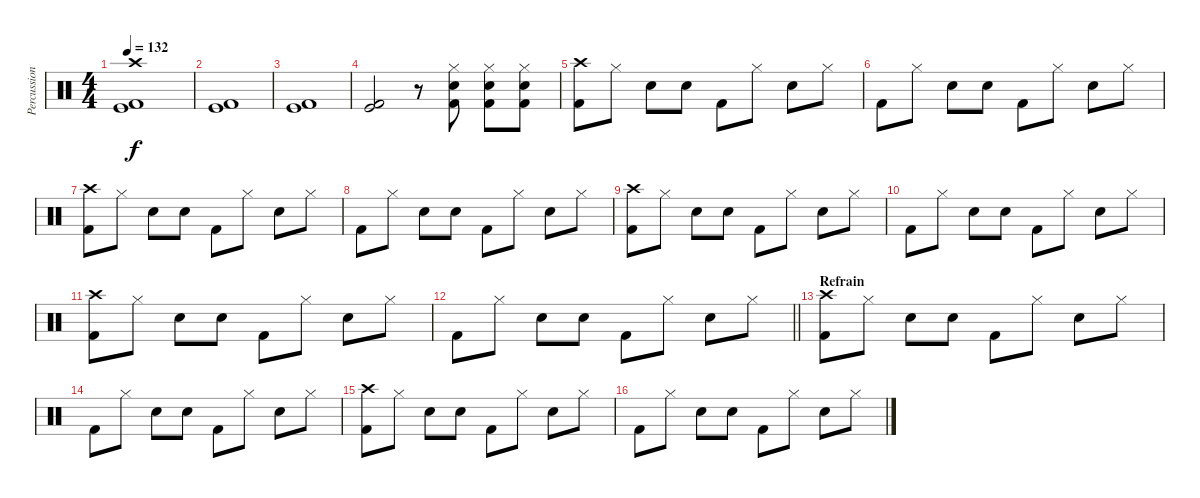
\track ("Percussions" "Percussion") {instrument percussion}
\staff {score}
\articulation defaults
\ts (4 4)
\tempo 132
\clef neutral
\ks c
("Kick (hit) 2" "Kick (hit)" "Crash high (hit)").1{dy f} |
("Kick (hit) 2" "Kick (hit)").1 |
("Kick (hit) 2" "Kick (hit)").1 |
("Kick (hit) 2" "Kick (hit)").2 r.8 ("Snare (hit) 2" "Kick (hit) 2" "Hi-Hat (closed)").8 ("Snare (hit) 2" "Kick (hit) 2" "Hi-Hat (closed)").8 ("Snare (hit) 2" "Kick (hit) 2" "Hi-Hat (closed)").8 |
("Kick (hit) 2" "Crash high (hit)").8 "Hi-Hat (closed)".8 "Snare (hit) 2".8 "Snare (hit) 2".8 "Kick (hit) 2".8 "Hi-Hat (closed)".8 "Snare (hit) 2".8 "Hi-Hat (closed)".8 |
"Kick (hit) 2".8 "Hi-Hat (closed)".8 "Snare (hit) 2".8 "Snare (hit) 2".8 "Kick (hit) 2".8 "Hi-Hat (closed)".8 "Snare (hit) 2".8 "Hi-Hat (closed)".8 |
("Kick (hit) 2" "Crash high (hit)").8 "Hi-Hat (closed)".8 "Snare (hit) 2".8 "Snare (hit) 2".8 "Kick (hit) 2".8 "Hi-Hat (closed)".8 "Snare (hit) 2".8 "Hi-Hat (closed)".8 |
"Kick (hit) 2".8 "Hi-Hat (closed)".8 "Snare (hit) 2".8 "Snare (hit) 2".8 "Kick (hit) 2".8 "Hi-Hat (closed)".8 "Snare (hit) 2".8 "Hi-Hat (closed)".8 |
("Kick (hit) 2" "Crash high (hit)").8 "Hi-Hat (closed)".8 "Snare (hit) 2".8 "Snare (hit) 2".8 "Kick (hit) 2".8 "Hi-Hat (closed)".8 "Snare (hit) 2".8 "Hi-Hat (closed)".8 |
"Kick (hit) 2".8 "Hi-Hat (closed)".8 "Snare (hit) 2".8 "Snare (hit) 2".8 "Kick (hit) 2".8 "Hi-Hat (closed)".8 "Snare (hit) 2".8 "Hi-Hat (closed)".8 |
("Kick (hit) 2" "Crash high (hit)").8 "Hi-Hat (closed)".8 "Snare (hit) 2".8 "Snare (hit) 2".8 "Kick (hit) 2".8 "Hi-Hat (closed)".8 "Snare (hit) 2".8 "Hi-Hat (closed)".8 |
\barLineRight lightlight "Kick (hit) 2".8 "Hi-Hat (closed)".8 "Snare (hit) 2".8 "Snare (hit) 2".8 "Kick (hit) 2".8 "Hi-Hat (closed)".8 "Snare (hit) 2".8 "Hi-Hat (closed)".8
|
\section ("" "Refrain")
("Kick (hit) 2" "Crash high (hit)").8 "Hi-Hat (closed)".8 "Snare (hit) 2".8 "Snare (hit) 2".8 "Kick (hit) 2".8 "Hi-Hat (closed)".8 "Snare (hit) 2".8 "Hi-Hat (closed)".8 |
"Kick (hit) 2".8 "Hi-Hat (closed)".8 "Snare (hit) 2".8 "Snare (hit) 2".8 "Kick (hit) 2".8 "Hi-Hat (closed)".8 "Snare (hit) 2".8 "Hi-Hat (closed)".8 |
("Kick (hit) 2" "Crash high (hit)").8 "Hi-Hat (closed)".8 "Snare (hit) 2".8 "Snare (hit) 2".8 "Kick (hit) 2".8 "Hi-Hat (closed)".8 "Snare (hit) 2".8 "Hi-Hat (closed)".8 |
"Kick (hit) 2".8 "Hi-Hat (closed)".8 "Snare (hit) 2".8 "Snare (hit) 2".8 "Kick (hit) 2".8 "Hi-Hat (closed)".8 "Snare (hit) 2".8 "Hi-Hat (closed)".8
